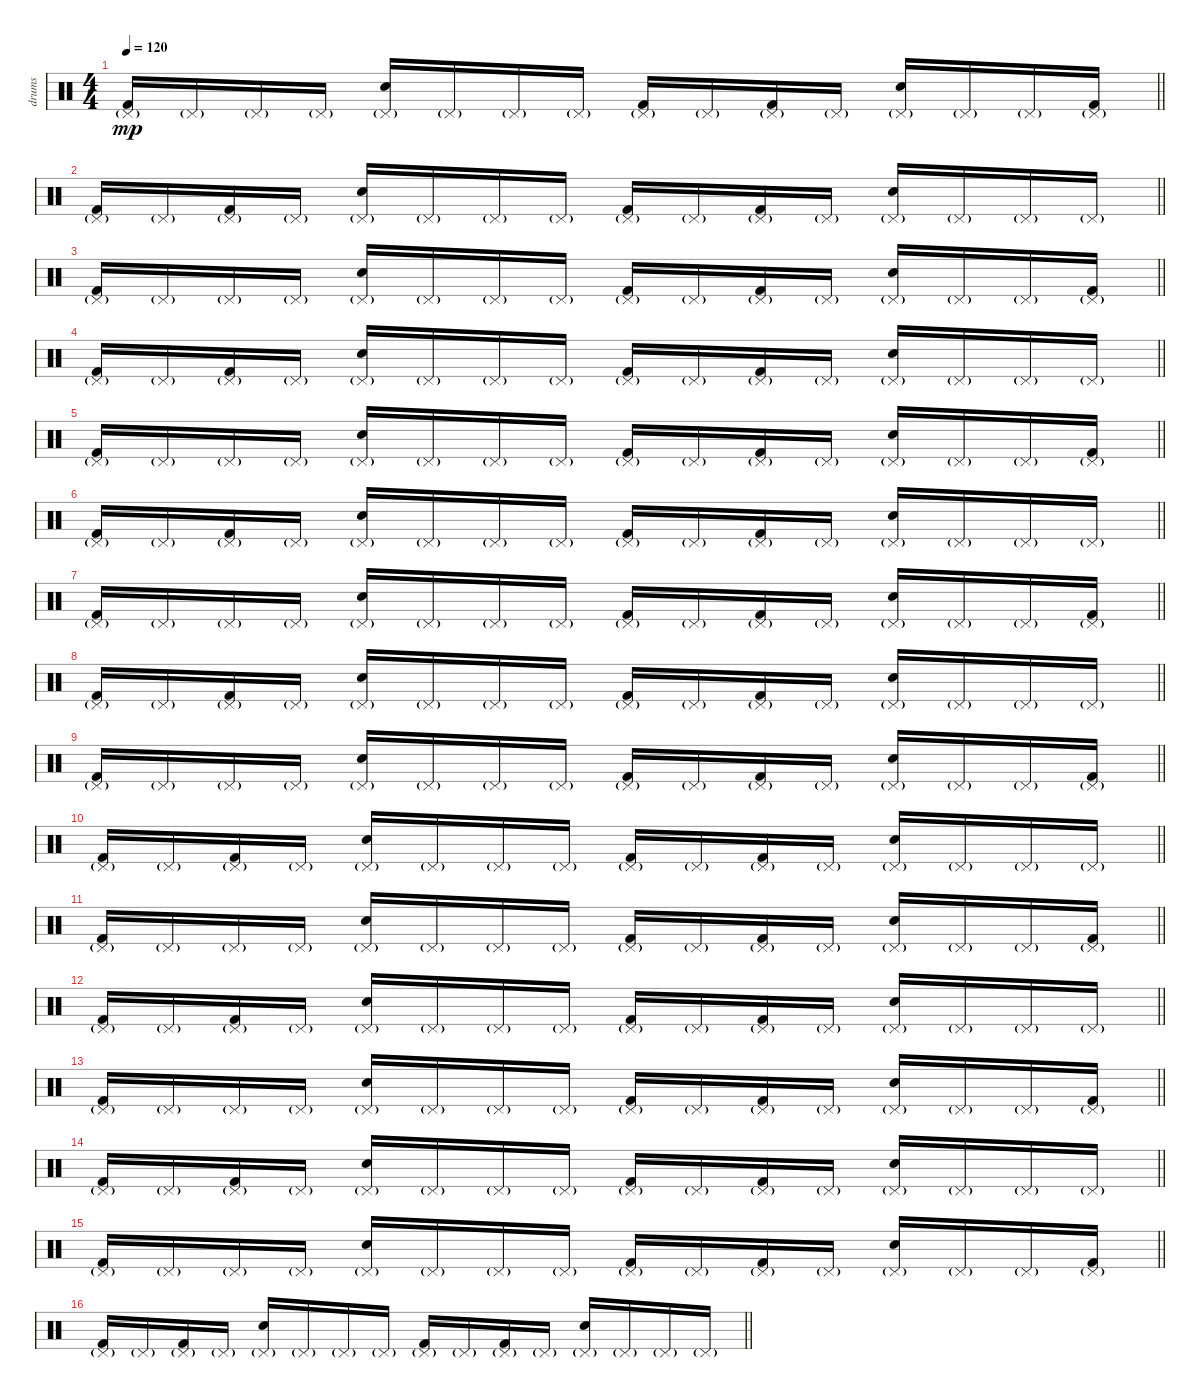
\track ("drums" "drums") {instrument percussion}
\staff {score}
\articulation defaults
\ts (4 4)
\tempo 120
\clef neutral
\barLineRight lightlight
\ks c
("Kick (hit) 2" "Pedal Hi-Hat (hit)"{g}).16{dy mp} "Pedal Hi-Hat (hit)"{g}.16 "Pedal Hi-Hat (hit)"{g}.16 "Pedal Hi-Hat (hit)"{g}.16 ("Hand Clap (hit)" "Pedal Hi-Hat (hit)"{g}).16 "Pedal Hi-Hat (hit)"{g}.16 "Pedal Hi-Hat (hit)"{g}.16 "Pedal Hi-Hat (hit)"{g}.16 ("Kick (hit) 2" "Pedal Hi-Hat (hit)"{g}).16 "Pedal Hi-Hat (hit)"{g}.16 ("Kick (hit) 2" "Pedal Hi-Hat (hit)"{g}).16 "Pedal Hi-Hat (hit)"{g}.16 ("Hand Clap (hit)" "Pedal Hi-Hat (hit)"{g}).16 "Pedal Hi-Hat (hit)"{g}.16 "Pedal Hi-Hat (hit)"{g}.16 ("Kick (hit) 2" "Pedal Hi-Hat (hit)"{g}).16 |
\barLineRight lightlight
("Kick (hit) 2" "Pedal Hi-Hat (hit)"{g}).16 "Pedal Hi-Hat (hit)"{g}.16 ("Kick (hit) 2" "Pedal Hi-Hat (hit)"{g}).16 "Pedal Hi-Hat (hit)"{g}.16 ("Hand Clap (hit)" "Pedal Hi-Hat (hit)"{g}).16 "Pedal Hi-Hat (hit)"{g}.16 "Pedal Hi-Hat (hit)"{g}.16 "Pedal Hi-Hat (hit)"{g}.16 ("Kick (hit) 2" "Pedal Hi-Hat (hit)"{g}).16 "Pedal Hi-Hat (hit)"{g}.16 ("Kick (hit) 2" "Pedal Hi-Hat (hit)"{g}).16 "Pedal Hi-Hat (hit)"{g}.16 ("Hand Clap (hit)" "Pedal Hi-Hat (hit)"{g}).16 "Pedal Hi-Hat (hit)"{g}.16 "Pedal Hi-Hat (hit)"{g}.16 "Pedal Hi-Hat (hit)"{g}.16 |
\barLineRight lightlight
("Kick (hit) 2" "Pedal Hi-Hat (hit)"{g}).16 "Pedal Hi-Hat (hit)"{g}.16 "Pedal Hi-Hat (hit)"{g}.16 "Pedal Hi-Hat (hit)"{g}.16 ("Hand Clap (hit)" "Pedal Hi-Hat (hit)"{g}).16 "Pedal Hi-Hat (hit)"{g}.16 "Pedal Hi-Hat (hit)"{g}.16 "Pedal Hi-Hat (hit)"{g}.16 ("Kick (hit) 2" "Pedal Hi-Hat (hit)"{g}).16 "Pedal Hi-Hat (hit)"{g}.16 ("Kick (hit) 2" "Pedal Hi-Hat (hit)"{g}).16 "Pedal Hi-Hat (hit)"{g}.16 ("Hand Clap (hit)" "Pedal Hi-Hat (hit)"{g}).16 "Pedal Hi-Hat (hit)"{g}.16 "Pedal Hi-Hat (hit)"{g}.16 ("Kick (hit) 2" "Pedal Hi-Hat (hit)"{g}).16 |
\barLineRight lightlight
("Kick (hit) 2" "Pedal Hi-Hat (hit)"{g}).16 "Pedal Hi-Hat (hit)"{g}.16 ("Kick (hit) 2" "Pedal Hi-Hat (hit)"{g}).16 "Pedal Hi-Hat (hit)"{g}.16 ("Hand Clap (hit)" "Pedal Hi-Hat (hit)"{g}).16 "Pedal Hi-Hat (hit)"{g}.16 "Pedal Hi-Hat (hit)"{g}.16 "Pedal Hi-Hat (hit)"{g}.16 ("Kick (hit) 2" "Pedal Hi-Hat (hit)"{g}).16 "Pedal Hi-Hat (hit)"{g}.16 ("Kick (hit) 2" "Pedal Hi-Hat (hit)"{g}).16 "Pedal Hi-Hat (hit)"{g}.16 ("Hand Clap (hit)" "Pedal Hi-Hat (hit)"{g}).16 "Pedal Hi-Hat (hit)"{g}.16 "Pedal Hi-Hat (hit)"{g}.16 "Pedal Hi-Hat (hit)"{g}.16 |
\barLineRight lightlight
("Kick (hit) 2" "Pedal Hi-Hat (hit)"{g}).16 "Pedal Hi-Hat (hit)"{g}.16 "Pedal Hi-Hat (hit)"{g}.16 "Pedal Hi-Hat (hit)"{g}.16 ("Hand Clap (hit)" "Pedal Hi-Hat (hit)"{g}).16 "Pedal Hi-Hat (hit)"{g}.16 "Pedal Hi-Hat (hit)"{g}.16 "Pedal Hi-Hat (hit)"{g}.16 ("Kick (hit) 2" "Pedal Hi-Hat (hit)"{g}).16 "Pedal Hi-Hat (hit)"{g}.16 ("Kick (hit) 2" "Pedal Hi-Hat (hit)"{g}).16 "Pedal Hi-Hat (hit)"{g}.16 ("Hand Clap (hit)" "Pedal Hi-Hat (hit)"{g}).16 "Pedal Hi-Hat (hit)"{g}.16 "Pedal Hi-Hat (hit)"{g}.16 ("Kick (hit) 2" "Pedal Hi-Hat (hit)"{g}).16 |
\barLineRight lightlight
("Kick (hit) 2" "Pedal Hi-Hat (hit)"{g}).16 "Pedal Hi-Hat (hit)"{g}.16 ("Kick (hit) 2" "Pedal Hi-Hat (hit)"{g}).16 "Pedal Hi-Hat (hit)"{g}.16 ("Hand Clap (hit)" "Pedal Hi-Hat (hit)"{g}).16 "Pedal Hi-Hat (hit)"{g}.16 "Pedal Hi-Hat (hit)"{g}.16 "Pedal Hi-Hat (hit)"{g}.16 ("Kick (hit) 2" "Pedal Hi-Hat (hit)"{g}).16 "Pedal Hi-Hat (hit)"{g}.16 ("Kick (hit) 2" "Pedal Hi-Hat (hit)"{g}).16 "Pedal Hi-Hat (hit)"{g}.16 ("Hand Clap (hit)" "Pedal Hi-Hat (hit)"{g}).16 "Pedal Hi-Hat (hit)"{g}.16 "Pedal Hi-Hat (hit)"{g}.16 "Pedal Hi-Hat (hit)"{g}.16 |
\barLineRight lightlight
("Kick (hit) 2" "Pedal Hi-Hat (hit)"{g}).16 "Pedal Hi-Hat (hit)"{g}.16 "Pedal Hi-Hat (hit)"{g}.16 "Pedal Hi-Hat (hit)"{g}.16 ("Hand Clap (hit)" "Pedal Hi-Hat (hit)"{g}).16 "Pedal Hi-Hat (hit)"{g}.16 "Pedal Hi-Hat (hit)"{g}.16 "Pedal Hi-Hat (hit)"{g}.16 ("Kick (hit) 2" "Pedal Hi-Hat (hit)"{g}).16 "Pedal Hi-Hat (hit)"{g}.16 ("Kick (hit) 2" "Pedal Hi-Hat (hit)"{g}).16 "Pedal Hi-Hat (hit)"{g}.16 ("Hand Clap (hit)" "Pedal Hi-Hat (hit)"{g}).16 "Pedal Hi-Hat (hit)"{g}.16 "Pedal Hi-Hat (hit)"{g}.16 ("Kick (hit) 2" "Pedal Hi-Hat (hit)"{g}).16 |
\barLineRight lightlight
("Kick (hit) 2" "Pedal Hi-Hat (hit)"{g}).16 "Pedal Hi-Hat (hit)"{g}.16 ("Kick (hit) 2" "Pedal Hi-Hat (hit)"{g}).16 "Pedal Hi-Hat (hit)"{g}.16 ("Hand Clap (hit)" "Pedal Hi-Hat (hit)"{g}).16 "Pedal Hi-Hat (hit)"{g}.16 "Pedal Hi-Hat (hit)"{g}.16 "Pedal Hi-Hat (hit)"{g}.16 ("Kick (hit) 2" "Pedal Hi-Hat (hit)"{g}).16 "Pedal Hi-Hat (hit)"{g}.16 ("Kick (hit) 2" "Pedal Hi-Hat (hit)"{g}).16 "Pedal Hi-Hat (hit)"{g}.16 ("Hand Clap (hit)" "Pedal Hi-Hat (hit)"{g}).16 "Pedal Hi-Hat (hit)"{g}.16 "Pedal Hi-Hat (hit)"{g}.16 "Pedal Hi-Hat (hit)"{g}.16 |
\barLineRight lightlight
("Kick (hit) 2" "Pedal Hi-Hat (hit)"{g}).16 "Pedal Hi-Hat (hit)"{g}.16 "Pedal Hi-Hat (hit)"{g}.16 "Pedal Hi-Hat (hit)"{g}.16 ("Hand Clap (hit)" "Pedal Hi-Hat (hit)"{g}).16 "Pedal Hi-Hat (hit)"{g}.16 "Pedal Hi-Hat (hit)"{g}.16 "Pedal Hi-Hat (hit)"{g}.16 ("Kick (hit) 2" "Pedal Hi-Hat (hit)"{g}).16 "Pedal Hi-Hat (hit)"{g}.16 ("Kick (hit) 2" "Pedal Hi-Hat (hit)"{g}).16 "Pedal Hi-Hat (hit)"{g}.16 ("Hand Clap (hit)" "Pedal Hi-Hat (hit)"{g}).16 "Pedal Hi-Hat (hit)"{g}.16 "Pedal Hi-Hat (hit)"{g}.16 ("Kick (hit) 2" "Pedal Hi-Hat (hit)"{g}).16 |
\barLineRight lightlight
("Kick (hit) 2" "Pedal Hi-Hat (hit)"{g}).16 "Pedal Hi-Hat (hit)"{g}.16 ("Kick (hit) 2" "Pedal Hi-Hat (hit)"{g}).16 "Pedal Hi-Hat (hit)"{g}.16 ("Hand Clap (hit)" "Pedal Hi-Hat (hit)"{g}).16 "Pedal Hi-Hat (hit)"{g}.16 "Pedal Hi-Hat (hit)"{g}.16 "Pedal Hi-Hat (hit)"{g}.16 ("Kick (hit) 2" "Pedal Hi-Hat (hit)"{g}).16 "Pedal Hi-Hat (hit)"{g}.16 ("Kick (hit) 2" "Pedal Hi-Hat (hit)"{g}).16 "Pedal Hi-Hat (hit)"{g}.16 ("Hand Clap (hit)" "Pedal Hi-Hat (hit)"{g}).16 "Pedal Hi-Hat (hit)"{g}.16 "Pedal Hi-Hat (hit)"{g}.16 "Pedal Hi-Hat (hit)"{g}.16 |
\barLineRight lightlight
("Kick (hit) 2" "Pedal Hi-Hat (hit)"{g}).16 "Pedal Hi-Hat (hit)"{g}.16 "Pedal Hi-Hat (hit)"{g}.16 "Pedal Hi-Hat (hit)"{g}.16 ("Hand Clap (hit)" "Pedal Hi-Hat (hit)"{g}).16 "Pedal Hi-Hat (hit)"{g}.16 "Pedal Hi-Hat (hit)"{g}.16 "Pedal Hi-Hat (hit)"{g}.16 ("Kick (hit) 2" "Pedal Hi-Hat (hit)"{g}).16 "Pedal Hi-Hat (hit)"{g}.16 ("Kick (hit) 2" "Pedal Hi-Hat (hit)"{g}).16 "Pedal Hi-Hat (hit)"{g}.16 ("Hand Clap (hit)" "Pedal Hi-Hat (hit)"{g}).16 "Pedal Hi-Hat (hit)"{g}.16 "Pedal Hi-Hat (hit)"{g}.16 ("Kick (hit) 2" "Pedal Hi-Hat (hit)"{g}).16 |
\barLineRight lightlight
("Kick (hit) 2" "Pedal Hi-Hat (hit)"{g}).16 "Pedal Hi-Hat (hit)"{g}.16 ("Kick (hit) 2" "Pedal Hi-Hat (hit)"{g}).16 "Pedal Hi-Hat (hit)"{g}.16 ("Hand Clap (hit)" "Pedal Hi-Hat (hit)"{g}).16 "Pedal Hi-Hat (hit)"{g}.16 "Pedal Hi-Hat (hit)"{g}.16 "Pedal Hi-Hat (hit)"{g}.16 ("Kick (hit) 2" "Pedal Hi-Hat (hit)"{g}).16 "Pedal Hi-Hat (hit)"{g}.16 ("Kick (hit) 2" "Pedal Hi-Hat (hit)"{g}).16 "Pedal Hi-Hat (hit)"{g}.16 ("Hand Clap (hit)" "Pedal Hi-Hat (hit)"{g}).16 "Pedal Hi-Hat (hit)"{g}.16 "Pedal Hi-Hat (hit)"{g}.16 "Pedal Hi-Hat (hit)"{g}.16 |
\barLineRight lightlight
("Kick (hit) 2" "Pedal Hi-Hat (hit)"{g}).16 "Pedal Hi-Hat (hit)"{g}.16 "Pedal Hi-Hat (hit)"{g}.16 "Pedal Hi-Hat (hit)"{g}.16 ("Hand Clap (hit)" "Pedal Hi-Hat (hit)"{g}).16 "Pedal Hi-Hat (hit)"{g}.16 "Pedal Hi-Hat (hit)"{g}.16 "Pedal Hi-Hat (hit)"{g}.16 ("Kick (hit) 2" "Pedal Hi-Hat (hit)"{g}).16 "Pedal Hi-Hat (hit)"{g}.16 ("Kick (hit) 2" "Pedal Hi-Hat (hit)"{g}).16 "Pedal Hi-Hat (hit)"{g}.16 ("Hand Clap (hit)" "Pedal Hi-Hat (hit)"{g}).16 "Pedal Hi-Hat (hit)"{g}.16 "Pedal Hi-Hat (hit)"{g}.16 ("Kick (hit) 2" "Pedal Hi-Hat (hit)"{g}).16 |
\barLineRight lightlight
("Kick (hit) 2" "Pedal Hi-Hat (hit)"{g}).16 "Pedal Hi-Hat (hit)"{g}.16 ("Kick (hit) 2" "Pedal Hi-Hat (hit)"{g}).16 "Pedal Hi-Hat (hit)"{g}.16 ("Hand Clap (hit)" "Pedal Hi-Hat (hit)"{g}).16 "Pedal Hi-Hat (hit)"{g}.16 "Pedal Hi-Hat (hit)"{g}.16 "Pedal Hi-Hat (hit)"{g}.16 ("Kick (hit) 2" "Pedal Hi-Hat (hit)"{g}).16 "Pedal Hi-Hat (hit)"{g}.16 ("Kick (hit) 2" "Pedal Hi-Hat (hit)"{g}).16 "Pedal Hi-Hat (hit)"{g}.16 ("Hand Clap (hit)" "Pedal Hi-Hat (hit)"{g}).16 "Pedal Hi-Hat (hit)"{g}.16 "Pedal Hi-Hat (hit)"{g}.16 "Pedal Hi-Hat (hit)"{g}.16 |
\barLineRight lightlight
("Kick (hit) 2" "Pedal Hi-Hat (hit)"{g}).16 "Pedal Hi-Hat (hit)"{g}.16 "Pedal Hi-Hat (hit)"{g}.16 "Pedal Hi-Hat (hit)"{g}.16 ("Hand Clap (hit)" "Pedal Hi-Hat (hit)"{g}).16 "Pedal Hi-Hat (hit)"{g}.16 "Pedal Hi-Hat (hit)"{g}.16 "Pedal Hi-Hat (hit)"{g}.16 ("Kick (hit) 2" "Pedal Hi-Hat (hit)"{g}).16 "Pedal Hi-Hat (hit)"{g}.16 ("Kick (hit) 2" "Pedal Hi-Hat (hit)"{g}).16 "Pedal Hi-Hat (hit)"{g}.16 ("Hand Clap (hit)" "Pedal Hi-Hat (hit)"{g}).16 "Pedal Hi-Hat (hit)"{g}.16 "Pedal Hi-Hat (hit)"{g}.16 ("Kick (hit) 2" "Pedal Hi-Hat (hit)"{g}).16 |
\barLineRight lightlight
("Kick (hit) 2" "Pedal Hi-Hat (hit)"{g}).16 "Pedal Hi-Hat (hit)"{g}.16 ("Kick (hit) 2" "Pedal Hi-Hat (hit)"{g}).16 "Pedal Hi-Hat (hit)"{g}.16 ("Hand Clap (hit)" "Pedal Hi-Hat (hit)"{g}).16 "Pedal Hi-Hat (hit)"{g}.16 "Pedal Hi-Hat (hit)"{g}.16 "Pedal Hi-Hat (hit)"{g}.16 ("Kick (hit) 2" "Pedal Hi-Hat (hit)"{g}).16 "Pedal Hi-Hat (hit)"{g}.16 ("Kick (hit) 2" "Pedal Hi-Hat (hit)"{g}).16 "Pedal Hi-Hat (hit)"{g}.16 ("Hand Clap (hit)" "Pedal Hi-Hat (hit)"{g}).16 "Pedal Hi-Hat (hit)"{g}.16 "Pedal Hi-Hat (hit)"{g}.16 "Pedal Hi-Hat (hit)"{g}.16
